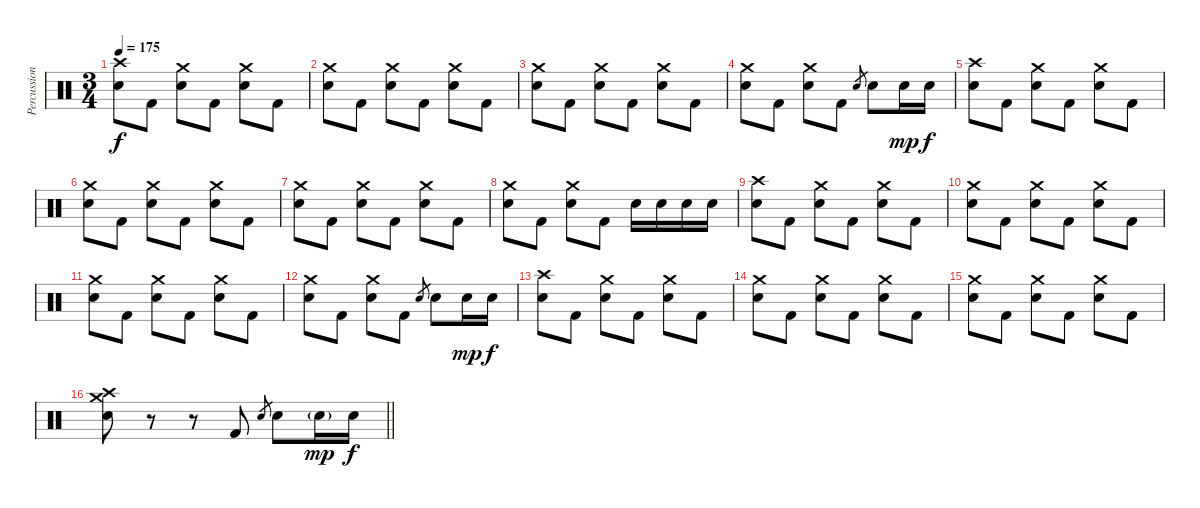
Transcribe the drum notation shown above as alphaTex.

\track ("Percussion" "Percussion") {instrument percussion}
\staff {score}
\articulation defaults
\ts (3 4)
\tempo 175
\clef neutral
\ks c
("Crash high (hit)" "Electric Snare (hit)").8{dy f} "Kick (hit) 2".8 ("Crash medium (hit)" "Electric Snare (hit)").8 "Kick (hit) 2".8 ("Crash medium (hit)" "Electric Snare (hit)").8 "Kick (hit) 2".8 |
("Crash medium (hit)" "Electric Snare (hit)").8 "Kick (hit) 2".8 ("Crash medium (hit)" "Electric Snare (hit)").8 "Kick (hit) 2".8 ("Crash medium (hit)" "Electric Snare (hit)").8 "Kick (hit) 2".8 |
("Crash medium (hit)" "Electric Snare (hit)").8 "Kick (hit) 2".8 ("Crash medium (hit)" "Electric Snare (hit)").8 "Kick (hit) 2".8 ("Crash medium (hit)" "Electric Snare (hit)").8 "Kick (hit) 2".8 |
("Crash medium (hit)" "Electric Snare (hit)").8 "Kick (hit) 2".8 ("Crash medium (hit)" "Electric Snare (hit)").8 "Kick (hit) 2".8 "Electric Snare (hit)".8{gr} "Electric Snare (hit)".8 "Electric Snare (hit)".16{dy mp} "Electric Snare (hit)".16{dy f} |
("Crash high (hit)" "Electric Snare (hit)").8 "Kick (hit) 2".8 ("Crash medium (hit)" "Electric Snare (hit)").8 "Kick (hit) 2".8 ("Crash medium (hit)" "Electric Snare (hit)").8 "Kick (hit) 2".8 |
("Crash medium (hit)" "Electric Snare (hit)").8 "Kick (hit) 2".8 ("Crash medium (hit)" "Electric Snare (hit)").8 "Kick (hit) 2".8 ("Crash medium (hit)" "Electric Snare (hit)").8 "Kick (hit) 2".8 |
("Crash medium (hit)" "Electric Snare (hit)").8 "Kick (hit) 2".8 ("Crash medium (hit)" "Electric Snare (hit)").8 "Kick (hit) 2".8 ("Crash medium (hit)" "Electric Snare (hit)").8 "Kick (hit) 2".8 |
("Crash medium (hit)" "Electric Snare (hit)").8 "Kick (hit) 2".8 ("Crash medium (hit)" "Electric Snare (hit)").8 "Kick (hit) 2".8 "Electric Snare (hit)".16 "Electric Snare (hit)".16 "Electric Snare (hit)".16 "Electric Snare (hit)".16 |
("Crash high (hit)" "Electric Snare (hit)").8 "Kick (hit) 2".8 ("Crash medium (hit)" "Electric Snare (hit)").8 "Kick (hit) 2".8 ("Crash medium (hit)" "Electric Snare (hit)").8 "Kick (hit) 2".8 |
("Crash medium (hit)" "Electric Snare (hit)").8 "Kick (hit) 2".8 ("Crash medium (hit)" "Electric Snare (hit)").8 "Kick (hit) 2".8 ("Crash medium (hit)" "Electric Snare (hit)").8 "Kick (hit) 2".8 |
("Crash medium (hit)" "Electric Snare (hit)").8 "Kick (hit) 2".8 ("Crash medium (hit)" "Electric Snare (hit)").8 "Kick (hit) 2".8 ("Crash medium (hit)" "Electric Snare (hit)").8 "Kick (hit) 2".8 |
("Crash medium (hit)" "Electric Snare (hit)").8 "Kick (hit) 2".8 ("Crash medium (hit)" "Electric Snare (hit)").8 "Kick (hit) 2".8 "Electric Snare (hit)".8{gr} "Electric Snare (hit)".8 "Electric Snare (hit)".16{dy mp} "Electric Snare (hit)".16{dy f} |
("Crash high (hit)" "Electric Snare (hit)").8 "Kick (hit) 2".8 ("Crash medium (hit)" "Electric Snare (hit)").8 "Kick (hit) 2".8 ("Crash medium (hit)" "Electric Snare (hit)").8 "Kick (hit) 2".8 |
("Crash medium (hit)" "Electric Snare (hit)").8 "Kick (hit) 2".8 ("Crash medium (hit)" "Electric Snare (hit)").8 "Kick (hit) 2".8 ("Crash medium (hit)" "Electric Snare (hit)").8 "Kick (hit) 2".8 |
("Crash medium (hit)" "Electric Snare (hit)").8 "Kick (hit) 2".8 ("Crash medium (hit)" "Electric Snare (hit)").8 "Kick (hit) 2".8 ("Crash medium (hit)" "Electric Snare (hit)").8 "Kick (hit) 2".8 |
\barLineRight lightlight
("Crash high (hit)" "Crash medium (hit)" "Electric Snare (hit)").8 r.8 r.8 "Kick (hit) 2".8 "Electric Snare (hit)".8{gr} "Electric Snare (hit)".8 "Electric Snare (hit)"{g}.16{dy mp} "Electric Snare (hit)".16{dy f}
